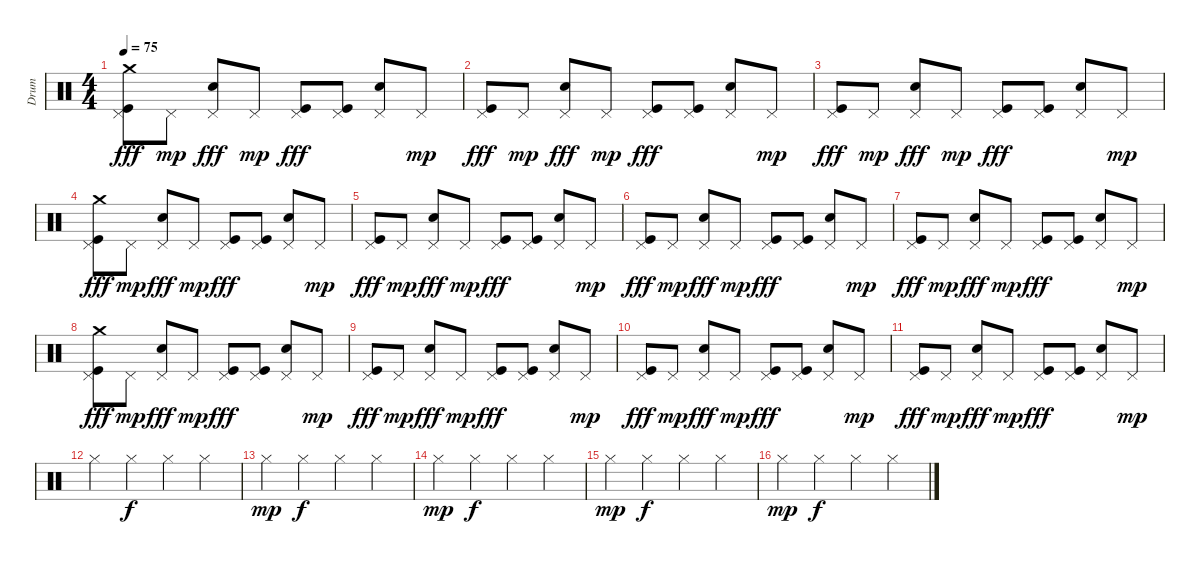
\track ("Drum" "Drum") {instrument percussion}
\staff {score}
\articulation defaults
\ts (4 4)
\tempo 75
\clef neutral
\ks c
("Pedal Hi-Hat (hit)" "Kick (hit)" "Crash medium (hit)").8{dy fff} "Pedal Hi-Hat (hit)".8{dy mp} ("Pedal Hi-Hat (hit)" "Snare (hit) 2").8{dy fff} "Pedal Hi-Hat (hit)".8{dy mp} ("Pedal Hi-Hat (hit)" "Kick (hit)").8{dy fff} ("Pedal Hi-Hat (hit)" "Kick (hit)").8 ("Pedal Hi-Hat (hit)" "Snare (hit) 2").8 "Pedal Hi-Hat (hit)".8{dy mp} |
("Pedal Hi-Hat (hit)" "Kick (hit)").8{dy fff} "Pedal Hi-Hat (hit)".8{dy mp} ("Pedal Hi-Hat (hit)" "Snare (hit) 2").8{dy fff} "Pedal Hi-Hat (hit)".8{dy mp} ("Pedal Hi-Hat (hit)" "Kick (hit)").8{dy fff} ("Pedal Hi-Hat (hit)" "Kick (hit)").8 ("Pedal Hi-Hat (hit)" "Snare (hit) 2").8 "Pedal Hi-Hat (hit)".8{dy mp} |
("Pedal Hi-Hat (hit)" "Kick (hit)").8{dy fff} "Pedal Hi-Hat (hit)".8{dy mp} ("Pedal Hi-Hat (hit)" "Snare (hit) 2").8{dy fff} "Pedal Hi-Hat (hit)".8{dy mp} ("Pedal Hi-Hat (hit)" "Kick (hit)").8{dy fff} ("Pedal Hi-Hat (hit)" "Kick (hit)").8 ("Pedal Hi-Hat (hit)" "Snare (hit) 2").8 "Pedal Hi-Hat (hit)".8{dy mp} |
("Pedal Hi-Hat (hit)" "Kick (hit)" "Crash medium (hit)").8{dy fff} "Pedal Hi-Hat (hit)".8{dy mp} ("Pedal Hi-Hat (hit)" "Snare (hit) 2").8{dy fff} "Pedal Hi-Hat (hit)".8{dy mp} ("Pedal Hi-Hat (hit)" "Kick (hit)").8{dy fff} ("Pedal Hi-Hat (hit)" "Kick (hit)").8 ("Pedal Hi-Hat (hit)" "Snare (hit) 2").8 "Pedal Hi-Hat (hit)".8{dy mp} |
("Pedal Hi-Hat (hit)" "Kick (hit)").8{dy fff} "Pedal Hi-Hat (hit)".8{dy mp} ("Pedal Hi-Hat (hit)" "Snare (hit) 2").8{dy fff} "Pedal Hi-Hat (hit)".8{dy mp} ("Pedal Hi-Hat (hit)" "Kick (hit)").8{dy fff} ("Pedal Hi-Hat (hit)" "Kick (hit)").8 ("Pedal Hi-Hat (hit)" "Snare (hit) 2").8 "Pedal Hi-Hat (hit)".8{dy mp} |
("Pedal Hi-Hat (hit)" "Kick (hit)").8{dy fff} "Pedal Hi-Hat (hit)".8{dy mp} ("Pedal Hi-Hat (hit)" "Snare (hit) 2").8{dy fff} "Pedal Hi-Hat (hit)".8{dy mp} ("Pedal Hi-Hat (hit)" "Kick (hit)").8{dy fff} ("Pedal Hi-Hat (hit)" "Kick (hit)").8 ("Pedal Hi-Hat (hit)" "Snare (hit) 2").8 "Pedal Hi-Hat (hit)".8{dy mp} |
("Pedal Hi-Hat (hit)" "Kick (hit)").8{dy fff} "Pedal Hi-Hat (hit)".8{dy mp} ("Pedal Hi-Hat (hit)" "Snare (hit) 2").8{dy fff} "Pedal Hi-Hat (hit)".8{dy mp} ("Pedal Hi-Hat (hit)" "Kick (hit)").8{dy fff} ("Pedal Hi-Hat (hit)" "Kick (hit)").8 ("Pedal Hi-Hat (hit)" "Snare (hit) 2").8 "Pedal Hi-Hat (hit)".8{dy mp} |
("Pedal Hi-Hat (hit)" "Kick (hit)" "Crash medium (hit)").8{dy fff} "Pedal Hi-Hat (hit)".8{dy mp} ("Pedal Hi-Hat (hit)" "Snare (hit) 2").8{dy fff} "Pedal Hi-Hat (hit)".8{dy mp} ("Pedal Hi-Hat (hit)" "Kick (hit)").8{dy fff} ("Pedal Hi-Hat (hit)" "Kick (hit)").8 ("Pedal Hi-Hat (hit)" "Snare (hit) 2").8 "Pedal Hi-Hat (hit)".8{dy mp} |
("Pedal Hi-Hat (hit)" "Kick (hit)").8{dy fff} "Pedal Hi-Hat (hit)".8{dy mp} ("Pedal Hi-Hat (hit)" "Snare (hit) 2").8{dy fff} "Pedal Hi-Hat (hit)".8{dy mp} ("Pedal Hi-Hat (hit)" "Kick (hit)").8{dy fff} ("Pedal Hi-Hat (hit)" "Kick (hit)").8 ("Pedal Hi-Hat (hit)" "Snare (hit) 2").8 "Pedal Hi-Hat (hit)".8{dy mp} |
("Pedal Hi-Hat (hit)" "Kick (hit)").8{dy fff} "Pedal Hi-Hat (hit)".8{dy mp} ("Pedal Hi-Hat (hit)" "Snare (hit) 2").8{dy fff} "Pedal Hi-Hat (hit)".8{dy mp} ("Pedal Hi-Hat (hit)" "Kick (hit)").8{dy fff} ("Pedal Hi-Hat (hit)" "Kick (hit)").8 ("Pedal Hi-Hat (hit)" "Snare (hit) 2").8 "Pedal Hi-Hat (hit)".8{dy mp} |
("Pedal Hi-Hat (hit)" "Kick (hit)").8{dy fff} "Pedal Hi-Hat (hit)".8{dy mp} ("Pedal Hi-Hat (hit)" "Snare (hit) 2").8{dy fff} "Pedal Hi-Hat (hit)".8{dy mp} ("Pedal Hi-Hat (hit)" "Kick (hit)").8{dy fff} ("Pedal Hi-Hat (hit)" "Kick (hit)").8 ("Pedal Hi-Hat (hit)" "Snare (hit) 2").8 "Pedal Hi-Hat (hit)".8{dy mp} |
"Hi-Hat (closed)".4 "Hi-Hat (closed)".4{dy f} "Hi-Hat (closed)".4 "Hi-Hat (closed)".4 |
"Hi-Hat (closed)".4{dy mp} "Hi-Hat (closed)".4{dy f} "Hi-Hat (closed)".4 "Hi-Hat (closed)".4 |
"Hi-Hat (closed)".4{dy mp} "Hi-Hat (closed)".4{dy f} "Hi-Hat (closed)".4 "Hi-Hat (closed)".4 |
"Hi-Hat (closed)".4{dy mp} "Hi-Hat (closed)".4{dy f} "Hi-Hat (closed)".4 "Hi-Hat (closed)".4 |
"Hi-Hat (closed)".4{dy mp} "Hi-Hat (closed)".4{dy f} "Hi-Hat (closed)".4 "Hi-Hat (closed)".4
